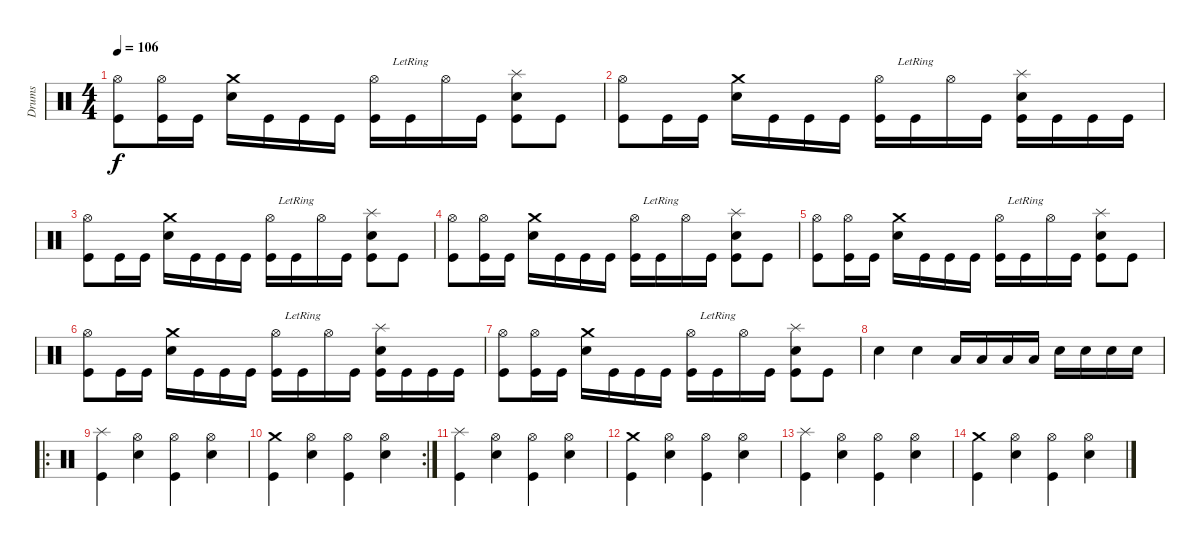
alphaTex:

\track ("Drums" "Drums") {instrument percussion}
\staff {score}
\articulation defaults
\ts (4 4)
\tempo 106
\clef neutral
\ks c
("Kick (hit)" "Hi-Hat (open)").8{dy f} ("Kick (hit)" "Hi-Hat (open)").16 "Kick (hit)".16 ("Snare (hit) 2" "Crash medium (hit)").16 "Kick (hit)".16 "Kick (hit)".16 "Kick (hit)".16 ("Kick (hit)" "Hi-Hat (open)").16 "Kick (hit)"{lr}.16 "Hi-Hat (open)".16 "Kick (hit)".16 ("Kick (hit)" "Snare (hit) 2" "Splash (hit)").8 "Kick (hit)".8 |
("Kick (hit)" "Hi-Hat (open)").8 "Kick (hit)".16 "Kick (hit)".16 ("Snare (hit) 2" "Crash medium (hit)").16 "Kick (hit)".16 "Kick (hit)".16 "Kick (hit)".16 ("Kick (hit)" "Hi-Hat (open)").16 "Kick (hit)"{lr}.16 "Hi-Hat (open)".16 "Kick (hit)".16 ("Kick (hit)" "Snare (hit) 2" "Splash (hit)").16 "Kick (hit)".16 "Kick (hit)".16 "Kick (hit)".16 |
("Kick (hit)" "Hi-Hat (open)").8 "Kick (hit)".16 "Kick (hit)".16 ("Snare (hit) 2" "Crash medium (hit)").16 "Kick (hit)".16 "Kick (hit)".16 "Kick (hit)".16 ("Kick (hit)" "Hi-Hat (open)").16 "Kick (hit)"{lr}.16 "Hi-Hat (open)".16 "Kick (hit)".16 ("Kick (hit)" "Snare (hit) 2" "Splash (hit)").8 "Kick (hit)".8 |
("Kick (hit)" "Hi-Hat (open)").8 ("Kick (hit)" "Hi-Hat (open)").16 "Kick (hit)".16 ("Snare (hit) 2" "Crash medium (hit)").16 "Kick (hit)".16 "Kick (hit)".16 "Kick (hit)".16 ("Kick (hit)" "Hi-Hat (open)").16 "Kick (hit)"{lr}.16 "Hi-Hat (open)".16 "Kick (hit)".16 ("Kick (hit)" "Snare (hit) 2" "Splash (hit)").8 "Kick (hit)".8 |
("Kick (hit)" "Hi-Hat (open)").8 ("Kick (hit)" "Hi-Hat (open)").16 "Kick (hit)".16 ("Snare (hit) 2" "Crash medium (hit)").16 "Kick (hit)".16 "Kick (hit)".16 "Kick (hit)".16 ("Kick (hit)" "Hi-Hat (open)").16 "Kick (hit)"{lr}.16 "Hi-Hat (open)".16 "Kick (hit)".16 ("Kick (hit)" "Snare (hit) 2" "Splash (hit)").8 "Kick (hit)".8 |
("Kick (hit)" "Hi-Hat (open)").8 "Kick (hit)".16 "Kick (hit)".16 ("Snare (hit) 2" "Crash medium (hit)").16 "Kick (hit)".16 "Kick (hit)".16 "Kick (hit)".16 ("Kick (hit)" "Hi-Hat (open)").16 "Kick (hit)"{lr}.16 "Hi-Hat (open)".16 "Kick (hit)".16 ("Kick (hit)" "Snare (hit) 2" "Splash (hit)").16 "Kick (hit)".16 "Kick (hit)".16 "Kick (hit)".16 |
("Kick (hit)" "Hi-Hat (open)").8 ("Kick (hit)" "Hi-Hat (open)").16 "Kick (hit)".16 ("Snare (hit) 2" "Crash medium (hit)").16 "Kick (hit)".16 "Kick (hit)".16 "Kick (hit)".16 ("Kick (hit)" "Hi-Hat (open)").16 "Kick (hit)"{lr}.16 "Hi-Hat (open)".16 "Kick (hit)".16 ("Kick (hit)" "Snare (hit) 2" "Splash (hit)").8 "Kick (hit)".8 |
"Snare (hit) 2".4 "Snare (hit) 2".4 "Low Floor Tom (hit)".16 "Low Floor Tom (hit)".16 "Low Floor Tom (hit)".16 "Low Floor Tom (hit)".16 "Snare (hit) 2".16 "Snare (hit) 2".16 "Snare (hit) 2".16 "Snare (hit) 2".16 |
\ro
("Kick (hit)" "Splash (hit)").4 ("Snare (hit) 2" "Hi-Hat (open)").4 ("Kick (hit)" "Hi-Hat (open)").4 ("Snare (hit) 2" "Hi-Hat (open)").4 |
\rc 2
("Kick (hit)" "Crash medium (hit)").4 ("Snare (hit) 2" "Hi-Hat (open)").4 ("Kick (hit)" "Hi-Hat (open)").4 ("Snare (hit) 2" "Hi-Hat (open)").4 |
("Kick (hit)" "Splash (hit)").4 ("Snare (hit) 2" "Hi-Hat (open)").4 ("Kick (hit)" "Hi-Hat (open)").4 ("Snare (hit) 2" "Hi-Hat (open)").4 |
("Kick (hit)" "Crash medium (hit)").4 ("Snare (hit) 2" "Hi-Hat (open)").4 ("Kick (hit)" "Hi-Hat (open)").4 ("Snare (hit) 2" "Hi-Hat (open)").4 |
("Kick (hit)" "Splash (hit)").4 ("Snare (hit) 2" "Hi-Hat (open)").4 ("Kick (hit)" "Hi-Hat (open)").4 ("Snare (hit) 2" "Hi-Hat (open)").4 |
("Kick (hit)" "Crash medium (hit)").4 ("Snare (hit) 2" "Hi-Hat (open)").4 ("Kick (hit)" "Hi-Hat (open)").4 ("Snare (hit) 2" "Hi-Hat (open)").4
